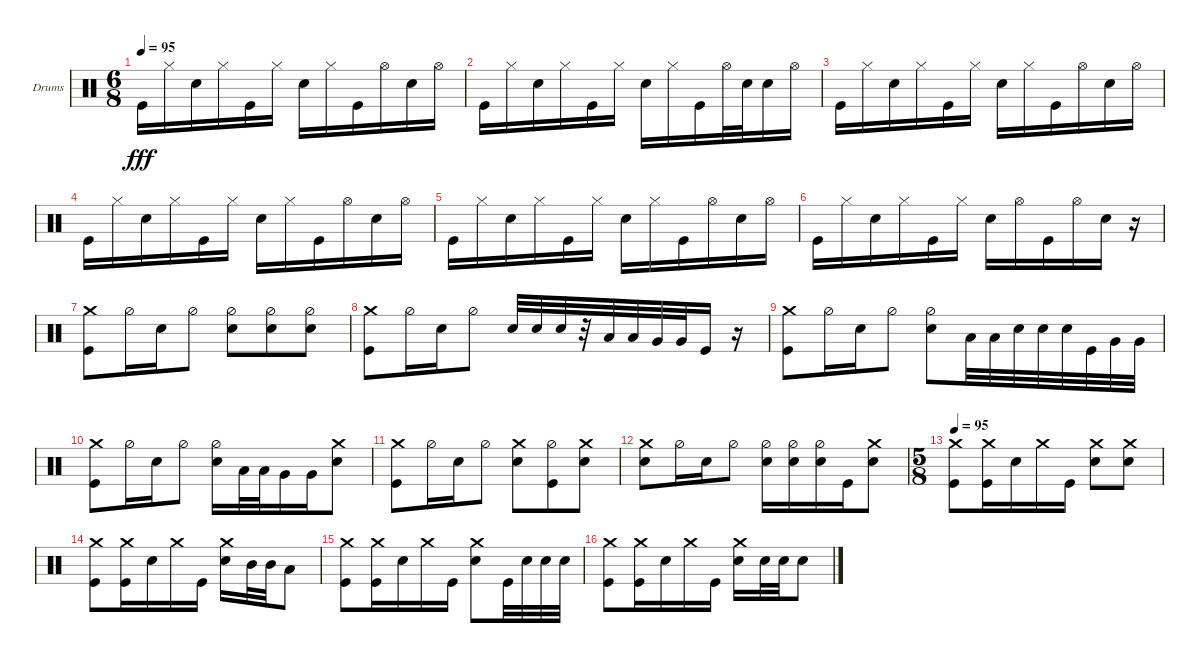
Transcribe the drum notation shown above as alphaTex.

\bracketExtendMode groupsimilarinstruments
\firstSystemTrackNameOrientation horizontal
\otherSystemsTrackNameOrientation horizontal
\track ("Andrew Forsman" "Drums") {instrument percussion}
\staff {score}
\articulation defaults
\ts (6 8)
\tempo 95
\clef neutral
\scale
0.262911
\ks c "Kick (hit)".16{dy fff} "Hi-Hat (closed)".16 "Snare (hit) 2".16 "Hi-Hat (closed)".16 "Kick (hit)".16 "Hi-Hat (closed)".16 "Snare (hit) 2".16 "Hi-Hat (closed)".16 "Kick (hit)".16 "Hi-Hat (open)".16 "Snare (hit) 2".16 "Hi-Hat (open)".16
|
\scale
0.333333 "Kick (hit)".16 "Hi-Hat (closed)".16 "Snare (hit) 2".16 "Hi-Hat (closed)".16 "Kick (hit)".16 "Hi-Hat (closed)".16 "Snare (hit) 2".16 "Hi-Hat (closed)".16 "Kick (hit)".16 "Hi-Hat (open)".32 "Snare (hit) 2".32 "Snare (hit) 2".16 "Hi-Hat (open)".16 |
\scale
0.333333 "Kick (hit)".16 "Hi-Hat (closed)".16 "Snare (hit) 2".16 "Hi-Hat (closed)".16 "Kick (hit)".16 "Hi-Hat (closed)".16 "Snare (hit) 2".16 "Hi-Hat (closed)".16 "Kick (hit)".16 "Hi-Hat (open)".16 "Snare (hit) 2".16 "Hi-Hat (open)".16 |
\scale
0.333333 "Kick (hit)".16 "Hi-Hat (closed)".16 "Snare (hit) 2".16 "Hi-Hat (closed)".16 "Kick (hit)".16 "Hi-Hat (closed)".16 "Snare (hit) 2".16 "Hi-Hat (closed)".16 "Kick (hit)".16 "Hi-Hat (open)".16 "Snare (hit) 2".16 "Hi-Hat (open)".16 |
\scale
0.333333 "Kick (hit)".16 "Hi-Hat (closed)".16 "Snare (hit) 2".16 "Hi-Hat (closed)".16 "Kick (hit)".16 "Hi-Hat (closed)".16 "Snare (hit) 2".16 "Hi-Hat (closed)".16 "Kick (hit)".16 "Hi-Hat (open)".16 "Snare (hit) 2".16 "Hi-Hat (open)".16 |
\scale
0.333333 "Kick (hit)".16 "Hi-Hat (closed)".16 "Snare (hit) 2".16 "Hi-Hat (closed)".16 "Kick (hit)".16 "Hi-Hat (closed)".16 "Snare (hit) 2".16 "Hi-Hat (open)".16 "Kick (hit)".16 "Hi-Hat (open)".16 "Snare (hit) 2".16 r.16 |
\scale
0.333333 ("Kick (hit)" "Crash medium (hit)").8 "Hi-Hat (half)".16 "Snare (hit) 2".16 "Hi-Hat (half)".8 ("Snare (hit) 2" "Hi-Hat (half)").8 ("Hi-Hat (half)" "Snare (hit) 2").8 ("Hi-Hat (half)" "Snare (hit) 2").8 |
\scale
0.333333 ("Kick (hit)" "Crash medium (hit)").8 "Hi-Hat (half)".16 "Snare (hit) 2".16 "Hi-Hat (half)".8 "Snare (hit) 2".32 "Snare (hit) 2".32 "Snare (hit) 2".32 r.32 "Low Tom (hit)".32 "Low Tom (hit)".32 "Very Low Tom (hit)".32 "Very Low Tom (hit)".32 "Kick (hit)".16 r.16 |
\scale
0.333333 ("Kick (hit)" "Crash medium (hit)").8 "Hi-Hat (half)".16 "Snare (hit) 2".16 "Hi-Hat (half)".8 ("Snare (hit) 2" "Hi-Hat (half)").8 "Low Tom (hit)".32 "Low Tom (hit)".32 "Snare (hit) 2".32 "Snare (hit) 2".32 "Snare (hit) 2".32 "Kick (hit)".32 "Very Low Tom (hit)".32 "Very Low Tom (hit)".32 |
\scale
0.333333 ("Kick (hit)" "Crash medium (hit)").8 "Hi-Hat (half)".16 "Snare (hit) 2".16 "Hi-Hat (half)".8 ("Snare (hit) 2" "Hi-Hat (half)").16 "Low Tom (hit)".32 "Low Tom (hit)".32 "Very Low Tom (hit)".16 "Very Low Tom (hit)".16 ("Snare (hit) 2" "Crash medium (hit)").8 |
\scale
0.262911 ("Kick (hit)" "Crash medium (hit)").8 "Hi-Hat (half)".16 "Snare (hit) 2".16 "Hi-Hat (half)".8 ("Snare (hit) 2" "Crash medium (hit)").8 ("Hi-Hat (half)" "Kick (hit)").8 ("Snare (hit) 2" "Crash medium (hit)").8 |
\scale
0.262911 ("Crash medium (hit)" "Snare (hit) 2").8 "Hi-Hat (half)".16 "Snare (hit) 2".16 "Hi-Hat (half)".8 ("Snare (hit) 2" "Hi-Hat (half)").16 ("Snare (hit) 2" "Hi-Hat (half)").16 ("Snare (hit) 2" "Hi-Hat (half)").16 "Kick (hit)".16 ("Snare (hit) 2" "Crash medium (hit)").8 |
\ts (5 8)
\beaming (8 3 3)
\tempo 95
\scale
0.474178 ("Kick (hit)" "Crash medium (hit)").8 ("Kick (hit)" "Crash medium (hit)").16 "Snare (hit) 2".16 "Crash medium (hit)".16 "Kick (hit)".16 ("Snare (hit) 2" "Crash medium (hit)").8 ("Snare (hit) 2" "Crash medium (hit)").8 |
\scale
0.333333 ("Kick (hit)" "Crash medium (hit)").8 ("Kick (hit)" "Crash medium (hit)").16 "Snare (hit) 2".16 "Crash medium (hit)".16 "Kick (hit)".16 ("Snare (hit) 2" "Crash medium (hit)").16 "Mid Tom (hit)".32 "Mid Tom (hit)".32 "Low Tom (hit)".8 |
\scale
0.333333 ("Kick (hit)" "Crash medium (hit)").8 ("Kick (hit)" "Crash medium (hit)").16 "Snare (hit) 2".16 "Crash medium (hit)".16 "Kick (hit)".16 ("Snare (hit) 2" "Crash medium (hit)").8 "Kick (hit)".32 "Snare (hit) 2".32 "Snare (hit) 2".32 "Snare (hit) 2".32 |
\scale
0.333333 ("Kick (hit)" "Crash medium (hit)").8 ("Kick (hit)" "Crash medium (hit)").16 "Snare (hit) 2".16 "Crash medium (hit)".16 "Kick (hit)".16 ("Snare (hit) 2" "Crash medium (hit)").16 "Snare (hit) 2".32 "Snare (hit) 2".32 "Snare (hit) 2".8
